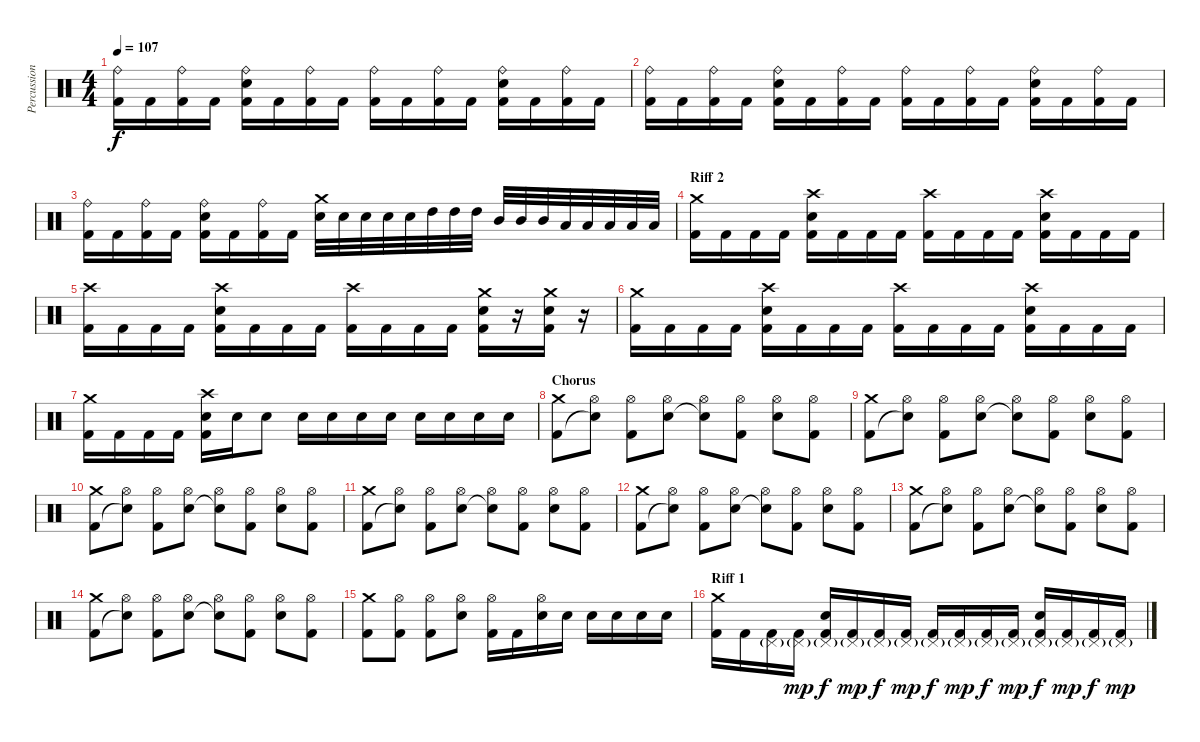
\track ("Percussions" "Percussion") {instrument percussion}
\staff {score}
\articulation defaults
\ts (4 4)
\tempo 107
\clef neutral
\ks c
("Ride (bell)" "Kick (hit) 2").16{dy f} "Kick (hit) 2".16 ("Ride (bell)" "Kick (hit) 2").16 "Kick (hit) 2".16 ("Ride (bell)" "Electric Snare (hit)" "Kick (hit) 2").16 "Kick (hit) 2".16 ("Ride (bell)" "Kick (hit) 2").16 "Kick (hit) 2".16 ("Ride (bell)" "Kick (hit) 2").16 "Kick (hit) 2".16 ("Ride (bell)" "Kick (hit) 2").16 "Kick (hit) 2".16 ("Ride (bell)" "Electric Snare (hit)" "Kick (hit) 2").16 "Kick (hit) 2".16 ("Ride (bell)" "Kick (hit) 2").16 "Kick (hit) 2".16 |
("Ride (bell)" "Kick (hit) 2").16 "Kick (hit) 2".16 ("Ride (bell)" "Kick (hit) 2").16 "Kick (hit) 2".16 ("Ride (bell)" "Electric Snare (hit)" "Kick (hit) 2").16 "Kick (hit) 2".16 ("Ride (bell)" "Kick (hit) 2").16 "Kick (hit) 2".16 ("Ride (bell)" "Kick (hit) 2").16 "Kick (hit) 2".16 ("Ride (bell)" "Kick (hit) 2").16 "Kick (hit) 2".16 ("Ride (bell)" "Electric Snare (hit)" "Kick (hit) 2").16 "Kick (hit) 2".16 ("Ride (bell)" "Kick (hit) 2").16 "Kick (hit) 2".16 |
("Ride (bell)" "Kick (hit) 2").16 "Kick (hit) 2".16 ("Ride (bell)" "Kick (hit) 2").16 "Kick (hit) 2".16 ("Ride (bell)" "Electric Snare (hit)" "Kick (hit) 2").16 "Kick (hit) 2".16 ("Ride (bell)" "Kick (hit) 2").16 "Kick (hit) 2".16 ("Crash medium (hit)" "Electric Snare (hit)").32 "Electric Snare (hit)".32 "Electric Snare (hit)".32 "Electric Snare (hit)".32 "Electric Snare (hit)".32 "High Tom (hit)".32 "High Tom (hit)".32 "High Tom (hit)".32 "Mid Tom (hit)".32 "Mid Tom (hit)".32 "Mid Tom (hit)".32 "Low Tom (hit)".32 "Low Tom (hit)".32 "Low Tom (hit)".32 "Low Tom (hit)".32 "Low Tom (hit)".32 |
\section ("" "Riff 2")
("Crash medium (hit)" "Kick (hit) 2").16 "Kick (hit) 2".16 "Kick (hit) 2".16 "Kick (hit) 2".16 ("Crash high (hit)" "Electric Snare (hit)" "Kick (hit) 2").16 "Kick (hit) 2".16 "Kick (hit) 2".16 "Kick (hit) 2".16 ("Crash high (hit)" "Kick (hit) 2").16 "Kick (hit) 2".16 "Kick (hit) 2".16 "Kick (hit) 2".16 ("Crash high (hit)" "Electric Snare (hit)" "Kick (hit) 2").16 "Kick (hit) 2".16 "Kick (hit) 2".16 "Kick (hit) 2".16 |
("Crash high (hit)" "Kick (hit) 2").16 "Kick (hit) 2".16 "Kick (hit) 2".16 "Kick (hit) 2".16 ("Crash high (hit)" "Electric Snare (hit)" "Kick (hit) 2").16 "Kick (hit) 2".16 "Kick (hit) 2".16 "Kick (hit) 2".16 ("Crash high (hit)" "Kick (hit) 2").16 "Kick (hit) 2".16 "Kick (hit) 2".16 "Kick (hit) 2".16 ("Crash medium (hit)" "Electric Snare (hit)" "Kick (hit) 2").16 r.16 ("Crash medium (hit)" "Electric Snare (hit)" "Kick (hit) 2").16 r.16 |
("Crash medium (hit)" "Kick (hit) 2").16 "Kick (hit) 2".16 "Kick (hit) 2".16 "Kick (hit) 2".16 ("Crash high (hit)" "Electric Snare (hit)" "Kick (hit) 2").16 "Kick (hit) 2".16 "Kick (hit) 2".16 "Kick (hit) 2".16 ("Crash high (hit)" "Kick (hit) 2").16 "Kick (hit) 2".16 "Kick (hit) 2".16 "Kick (hit) 2".16 ("Crash high (hit)" "Electric Snare (hit)" "Kick (hit) 2").16 "Kick (hit) 2".16 "Kick (hit) 2".16 "Kick (hit) 2".16 |
("Crash medium (hit)" "Kick (hit) 2").16 "Kick (hit) 2".16 "Kick (hit) 2".16 "Kick (hit) 2".16 ("Crash high (hit)" "Electric Snare (hit)" "Kick (hit) 2").16 "Electric Snare (hit)".16 "Electric Snare (hit)".8 "Electric Snare (hit)".16 "Electric Snare (hit)".16 "Electric Snare (hit)".16 "Electric Snare (hit)".16 "Electric Snare (hit)".16 "Electric Snare (hit)".16 "Electric Snare (hit)".16 "Electric Snare (hit)".16 |
\section ("" "Chorus")
("Crash medium (hit)" "Kick (hit) 2").8 ("Hi-Hat (open)" "Snare (hit)"{t}).8 ("Hi-Hat (open)" "Kick (hit) 2").8 ("Hi-Hat (open)" "Electric Snare (hit)").8 ("Hi-Hat (open)" "Snare (hit)"{t}).8 ("Hi-Hat (open)" "Kick (hit) 2").8 ("Hi-Hat (open)" "Electric Snare (hit)").8 ("Hi-Hat (open)" "Kick (hit) 2").8 |
("Crash medium (hit)" "Kick (hit) 2").8 ("Hi-Hat (open)" "Snare (hit)"{t}).8 ("Hi-Hat (open)" "Kick (hit) 2").8 ("Hi-Hat (open)" "Electric Snare (hit)").8 ("Hi-Hat (open)" "Snare (hit)"{t}).8 ("Hi-Hat (open)" "Kick (hit) 2").8 ("Hi-Hat (open)" "Electric Snare (hit)").8 ("Hi-Hat (open)" "Kick (hit) 2").8 |
("Crash medium (hit)" "Kick (hit) 2").8 ("Hi-Hat (open)" "Snare (hit)"{t}).8 ("Hi-Hat (open)" "Kick (hit) 2").8 ("Hi-Hat (open)" "Electric Snare (hit)").8 ("Hi-Hat (open)" "Snare (hit)"{t}).8 ("Hi-Hat (open)" "Kick (hit) 2").8 ("Hi-Hat (open)" "Electric Snare (hit)").8 ("Hi-Hat (open)" "Kick (hit) 2").8 |
("Crash medium (hit)" "Kick (hit) 2").8 ("Hi-Hat (open)" "Snare (hit)"{t}).8 ("Hi-Hat (open)" "Kick (hit) 2").8 ("Hi-Hat (open)" "Electric Snare (hit)").8 ("Hi-Hat (open)" "Snare (hit)"{t}).8 ("Hi-Hat (open)" "Kick (hit) 2").8 ("Hi-Hat (open)" "Electric Snare (hit)").8 ("Hi-Hat (open)" "Kick (hit) 2").8 |
("Crash medium (hit)" "Kick (hit) 2").8 ("Hi-Hat (open)" "Snare (hit)"{t}).8 ("Hi-Hat (open)" "Kick (hit) 2").8 ("Hi-Hat (open)" "Electric Snare (hit)").8 ("Hi-Hat (open)" "Snare (hit)"{t}).8 ("Hi-Hat (open)" "Kick (hit) 2").8 ("Hi-Hat (open)" "Electric Snare (hit)").8 ("Hi-Hat (open)" "Kick (hit) 2").8 |
("Crash medium (hit)" "Kick (hit) 2").8 ("Hi-Hat (open)" "Snare (hit)"{t}).8 ("Hi-Hat (open)" "Kick (hit) 2").8 ("Hi-Hat (open)" "Electric Snare (hit)").8 ("Hi-Hat (open)" "Snare (hit)"{t}).8 ("Hi-Hat (open)" "Kick (hit) 2").8 ("Hi-Hat (open)" "Electric Snare (hit)").8 ("Hi-Hat (open)" "Kick (hit) 2").8 |
("Crash medium (hit)" "Kick (hit) 2").8 ("Hi-Hat (open)" "Snare (hit)"{t}).8 ("Hi-Hat (open)" "Kick (hit) 2").8 ("Hi-Hat (open)" "Electric Snare (hit)").8 ("Hi-Hat (open)" "Snare (hit)"{t}).8 ("Hi-Hat (open)" "Kick (hit) 2").8 ("Hi-Hat (open)" "Electric Snare (hit)").8 ("Hi-Hat (open)" "Kick (hit) 2").8 |
("Crash medium (hit)" "Kick (hit) 2").8 ("Hi-Hat (open)" "Kick (hit) 2").8 ("Hi-Hat (open)" "Kick (hit) 2").8 ("Hi-Hat (open)" "Electric Snare (hit)").8 ("Hi-Hat (open)" "Kick (hit) 2").16 "Kick (hit) 2".16 ("Hi-Hat (open)" "Electric Snare (hit)").16 "Electric Snare (hit)".16 "Electric Snare (hit)".16 "Electric Snare (hit)".16 "Electric Snare (hit)".16 "Electric Snare (hit)".16 |
\section ("" "Riff 1")
("Crash medium (hit)" "Kick (hit) 2").16 "Kick (hit) 2".16 ("Pedal Hi-Hat (hit)"{g} "Kick (hit) 2").16 ("Pedal Hi-Hat (hit)"{g} "Kick (hit) 2").16{dy mp} ("Pedal Hi-Hat (hit)"{g} "Electric Snare (hit)" "Kick (hit) 2").16{dy f} ("Pedal Hi-Hat (hit)"{g} "Kick (hit) 2").16{dy mp} ("Pedal Hi-Hat (hit)"{g} "Kick (hit) 2").16{dy f} ("Pedal Hi-Hat (hit)"{g} "Kick (hit) 2").16{dy mp} ("Pedal Hi-Hat (hit)"{g} "Kick (hit) 2").16{dy f} ("Pedal Hi-Hat (hit)"{g} "Kick (hit) 2").16{dy mp} ("Pedal Hi-Hat (hit)"{g} "Kick (hit) 2").16{dy f} ("Pedal Hi-Hat (hit)"{g} "Kick (hit) 2").16{dy mp} ("Pedal Hi-Hat (hit)"{g} "Electric Snare (hit)" "Kick (hit) 2").16{dy f} ("Pedal Hi-Hat (hit)"{g} "Kick (hit) 2").16{dy mp} ("Pedal Hi-Hat (hit)"{g} "Kick (hit) 2").16{dy f} ("Pedal Hi-Hat (hit)"{g} "Kick (hit) 2").16{dy mp}
